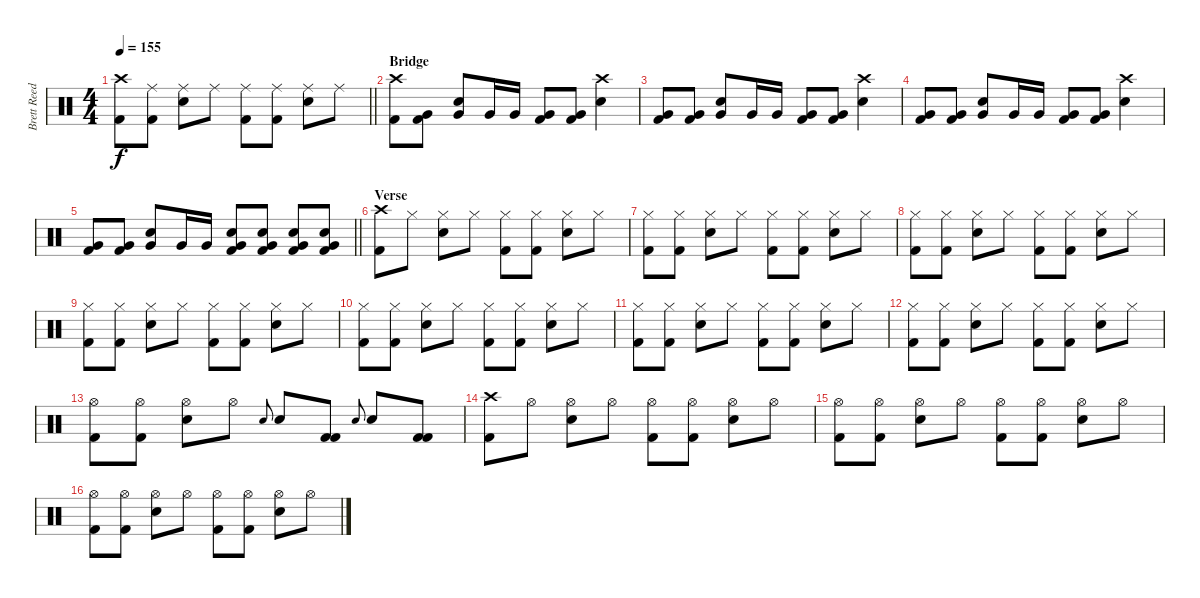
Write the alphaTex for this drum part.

\track ("Brett Reed" "Brett Reed") {instrument percussion}
\staff {score}
\articulation defaults
\ts (4 4)
\tempo 155
\clef neutral
\barLineRight lightlight
\ks c
("Crash high (hit)" "Kick (hit) 2").8{dy f} ("Ride (middle)" "Kick (hit) 2").8 ("Ride (middle)" "Electric Snare (hit)").8 "Ride (middle)".8 ("Ride (middle)" "Kick (hit) 2").8 ("Ride (middle)" "Kick (hit) 2").8 ("Ride (middle)" "Electric Snare (hit)").8 "Ride (middle)".8 |
\section ("" "Bridge")
("Crash high (hit)" "Kick (hit) 2").8 ("Very Low Tom (hit)" "Kick (hit) 2").8 ("Very Low Tom (hit)" "Electric Snare (hit)").8 "Very Low Tom (hit)".16 "Very Low Tom (hit)".16 ("Very Low Tom (hit)" "Kick (hit) 2").8 ("Very Low Tom (hit)" "Kick (hit) 2").8 ("Crash high (hit)" "Electric Snare (hit)").4 |
("Very Low Tom (hit)" "Kick (hit) 2").8 ("Very Low Tom (hit)" "Kick (hit) 2").8 ("Very Low Tom (hit)" "Electric Snare (hit)").8 "Very Low Tom (hit)".16 "Very Low Tom (hit)".16 ("Very Low Tom (hit)" "Kick (hit) 2").8 ("Very Low Tom (hit)" "Kick (hit) 2").8 ("Crash high (hit)" "Electric Snare (hit)").4 |
("Very Low Tom (hit)" "Kick (hit) 2").8 ("Very Low Tom (hit)" "Kick (hit) 2").8 ("Very Low Tom (hit)" "Electric Snare (hit)").8 "Very Low Tom (hit)".16 "Very Low Tom (hit)".16 ("Very Low Tom (hit)" "Kick (hit) 2").8 ("Very Low Tom (hit)" "Kick (hit) 2").8 ("Crash high (hit)" "Electric Snare (hit)").4 |
\barLineRight lightlight
("Very Low Tom (hit)" "Kick (hit) 2").8 ("Very Low Tom (hit)" "Kick (hit) 2").8 ("Very Low Tom (hit)" "Electric Snare (hit)").8 "Very Low Tom (hit)".16 "Very Low Tom (hit)".16 ("Very Low Tom (hit)" "Electric Snare (hit)" "Kick (hit) 2").8 ("Very Low Tom (hit)" "Electric Snare (hit)" "Kick (hit) 2").8 ("Very Low Tom (hit)" "Electric Snare (hit)" "Kick (hit) 2").8 ("Very Low Tom (hit)" "Electric Snare (hit)" "Kick (hit) 2").8 |
\section ("" "Verse")
("Crash high (hit)" "Kick (hit) 2").8 "Hi-Hat (closed)".8 ("Hi-Hat (closed)" "Electric Snare (hit)").8 "Hi-Hat (closed)".8 ("Hi-Hat (closed)" "Kick (hit) 2").8 ("Hi-Hat (closed)" "Kick (hit) 2").8 ("Hi-Hat (closed)" "Electric Snare (hit)").8 "Hi-Hat (closed)".8 |
("Hi-Hat (closed)" "Kick (hit) 2").8 ("Hi-Hat (closed)" "Kick (hit) 2").8 ("Hi-Hat (closed)" "Electric Snare (hit)").8 "Hi-Hat (closed)".8 ("Hi-Hat (closed)" "Kick (hit) 2").8 ("Hi-Hat (closed)" "Kick (hit) 2").8 ("Hi-Hat (closed)" "Electric Snare (hit)").8 "Hi-Hat (closed)".8 |
("Hi-Hat (closed)" "Kick (hit) 2").8 ("Hi-Hat (closed)" "Kick (hit) 2").8 ("Hi-Hat (closed)" "Electric Snare (hit)").8 "Hi-Hat (closed)".8 ("Hi-Hat (closed)" "Kick (hit) 2").8 ("Hi-Hat (closed)" "Kick (hit) 2").8 ("Hi-Hat (closed)" "Electric Snare (hit)").8 "Hi-Hat (closed)".8 |
("Hi-Hat (closed)" "Kick (hit) 2").8 ("Hi-Hat (closed)" "Kick (hit) 2").8 ("Hi-Hat (closed)" "Electric Snare (hit)").8 "Hi-Hat (closed)".8 ("Hi-Hat (closed)" "Kick (hit) 2").8 ("Hi-Hat (closed)" "Kick (hit) 2").8 ("Hi-Hat (closed)" "Electric Snare (hit)").8 "Hi-Hat (closed)".8 |
("Hi-Hat (closed)" "Kick (hit) 2").8 ("Hi-Hat (closed)" "Kick (hit) 2").8 ("Hi-Hat (closed)" "Electric Snare (hit)").8 "Hi-Hat (closed)".8 ("Hi-Hat (closed)" "Kick (hit) 2").8 ("Hi-Hat (closed)" "Kick (hit) 2").8 ("Hi-Hat (closed)" "Electric Snare (hit)").8 "Hi-Hat (closed)".8 |
("Hi-Hat (closed)" "Kick (hit) 2").8 ("Hi-Hat (closed)" "Kick (hit) 2").8 ("Hi-Hat (closed)" "Electric Snare (hit)").8 "Hi-Hat (closed)".8 ("Hi-Hat (closed)" "Kick (hit) 2").8 ("Hi-Hat (closed)" "Kick (hit) 2").8 ("Hi-Hat (closed)" "Electric Snare (hit)").8 "Hi-Hat (closed)".8 |
("Hi-Hat (closed)" "Kick (hit) 2").8 ("Hi-Hat (closed)" "Kick (hit) 2").8 ("Hi-Hat (closed)" "Electric Snare (hit)").8 "Hi-Hat (closed)".8 ("Hi-Hat (closed)" "Kick (hit) 2").8 ("Hi-Hat (closed)" "Kick (hit) 2").8 ("Hi-Hat (closed)" "Electric Snare (hit)").8 "Hi-Hat (closed)".8 |
("Hi-Hat (open)" "Kick (hit) 2").8 ("Hi-Hat (open)" "Kick (hit) 2").8 ("Hi-Hat (open)" "Electric Snare (hit)").8 "Hi-Hat (open)".8 "Electric Snare (hit)".8{gr onbeat} "Electric Snare (hit)".8 ("Kick (hit) 2" "Kick (hit) 2").8 "Electric Snare (hit)".8{gr onbeat} "Electric Snare (hit)".8 ("Kick (hit) 2" "Kick (hit) 2").8 |
("Crash high (hit)" "Kick (hit) 2").8 "Hi-Hat (open)".8 ("Hi-Hat (open)" "Electric Snare (hit)").8 "Hi-Hat (open)".8 ("Hi-Hat (open)" "Kick (hit) 2").8 ("Hi-Hat (open)" "Kick (hit) 2").8 ("Hi-Hat (open)" "Electric Snare (hit)").8 "Hi-Hat (open)".8 |
("Hi-Hat (open)" "Kick (hit) 2").8 ("Hi-Hat (open)" "Kick (hit) 2").8 ("Hi-Hat (open)" "Electric Snare (hit)").8 "Hi-Hat (open)".8 ("Hi-Hat (open)" "Kick (hit) 2").8 ("Hi-Hat (open)" "Kick (hit) 2").8 ("Hi-Hat (open)" "Electric Snare (hit)").8 "Hi-Hat (open)".8 |
("Hi-Hat (open)" "Kick (hit) 2").8 ("Hi-Hat (open)" "Kick (hit) 2").8 ("Hi-Hat (open)" "Electric Snare (hit)").8 "Hi-Hat (open)".8 ("Hi-Hat (open)" "Kick (hit) 2").8 ("Hi-Hat (open)" "Kick (hit) 2").8 ("Hi-Hat (open)" "Electric Snare (hit)").8 "Hi-Hat (open)".8
